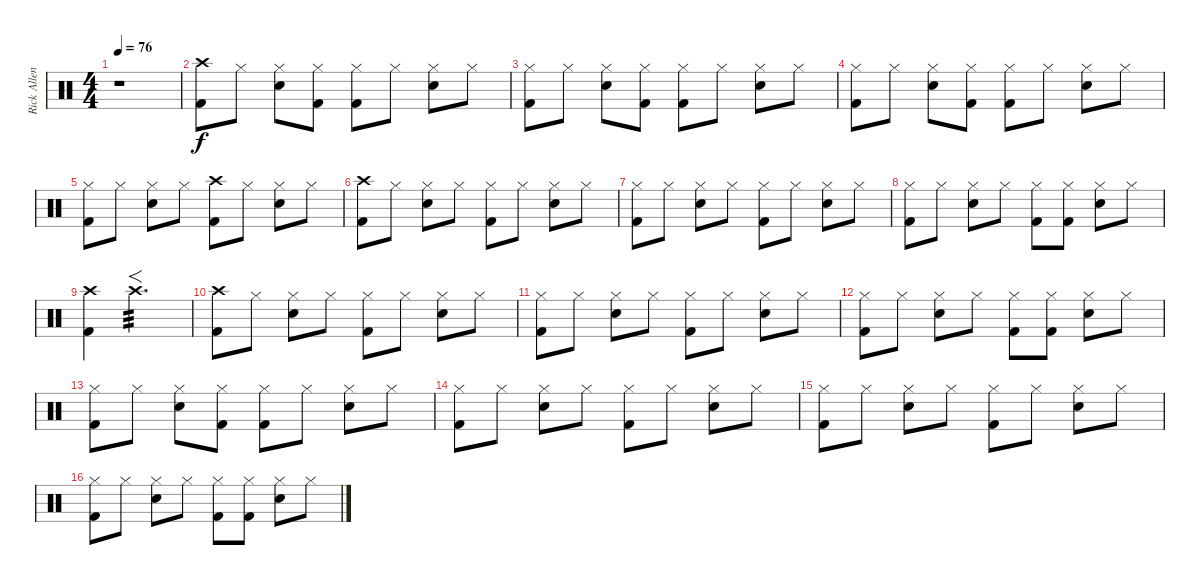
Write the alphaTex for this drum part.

\track ("Rick Allen" "Rick Allen") {instrument percussion}
\staff {score}
\articulation defaults
\ts (4 4)
\tempo 76
\clef neutral
\ks c
r.1{dy f} |
("Crash high (hit)" "Kick (hit) 2").8 "Hi-Hat (closed)".8 ("Hi-Hat (closed)" "Snare (hit) 2").8 ("Hi-Hat (closed)" "Kick (hit) 2").8 ("Hi-Hat (closed)" "Kick (hit) 2").8 "Hi-Hat (closed)".8 ("Hi-Hat (closed)" "Snare (hit) 2").8 "Hi-Hat (closed)".8 |
("Hi-Hat (closed)" "Kick (hit) 2").8 "Hi-Hat (closed)".8 ("Hi-Hat (closed)" "Snare (hit) 2").8 ("Hi-Hat (closed)" "Kick (hit) 2").8 ("Hi-Hat (closed)" "Kick (hit) 2").8 "Hi-Hat (closed)".8 ("Hi-Hat (closed)" "Snare (hit) 2").8 "Hi-Hat (closed)".8 |
("Hi-Hat (closed)" "Kick (hit) 2").8 "Hi-Hat (closed)".8 ("Hi-Hat (closed)" "Snare (hit) 2").8 ("Hi-Hat (closed)" "Kick (hit) 2").8 ("Hi-Hat (closed)" "Kick (hit) 2").8 "Hi-Hat (closed)".8 ("Hi-Hat (closed)" "Snare (hit) 2").8 "Hi-Hat (closed)".8 |
("Hi-Hat (closed)" "Kick (hit) 2").8 "Hi-Hat (closed)".8 ("Hi-Hat (closed)" "Snare (hit) 2").8 "Hi-Hat (closed)".8 ("Crash high (hit)" "Kick (hit) 2").8 "Hi-Hat (closed)".8 ("Hi-Hat (closed)" "Snare (hit) 2").8 "Hi-Hat (closed)".8 |
("Crash high (hit)" "Kick (hit) 2").8 "Hi-Hat (closed)".8 ("Hi-Hat (closed)" "Snare (hit) 2").8 "Hi-Hat (closed)".8 ("Hi-Hat (closed)" "Kick (hit) 2").8 "Hi-Hat (closed)".8 ("Hi-Hat (closed)" "Snare (hit) 2").8 "Hi-Hat (closed)".8 |
("Hi-Hat (closed)" "Kick (hit) 2").8 "Hi-Hat (closed)".8 ("Hi-Hat (closed)" "Snare (hit) 2").8 "Hi-Hat (closed)".8 ("Hi-Hat (closed)" "Kick (hit) 2").8 "Hi-Hat (closed)".8 ("Hi-Hat (closed)" "Snare (hit) 2").8 "Hi-Hat (closed)".8 |
("Hi-Hat (closed)" "Kick (hit) 2").8 "Hi-Hat (closed)".8 ("Hi-Hat (closed)" "Snare (hit) 2").8 "Hi-Hat (closed)".8 ("Hi-Hat (closed)" "Kick (hit) 2").8 ("Hi-Hat (closed)" "Kick (hit) 2").8 ("Hi-Hat (closed)" "Snare (hit) 2").8 "Hi-Hat (closed)".8 |
("Crash high (hit)" "Kick (hit) 2").4 "Crash high (hit)".2{f d tp 3} |
("Crash high (hit)" "Kick (hit) 2").8 "Hi-Hat (closed)".8 ("Hi-Hat (closed)" "Snare (hit) 2").8 "Hi-Hat (closed)".8 ("Hi-Hat (closed)" "Kick (hit) 2").8 "Hi-Hat (closed)".8 ("Hi-Hat (closed)" "Snare (hit) 2").8 "Hi-Hat (closed)".8 |
("Hi-Hat (closed)" "Kick (hit) 2").8 "Hi-Hat (closed)".8 ("Hi-Hat (closed)" "Snare (hit) 2").8 "Hi-Hat (closed)".8 ("Hi-Hat (closed)" "Kick (hit) 2").8 "Hi-Hat (closed)".8 ("Hi-Hat (closed)" "Snare (hit) 2").8 "Hi-Hat (closed)".8 |
("Hi-Hat (closed)" "Kick (hit) 2").8 "Hi-Hat (closed)".8 ("Hi-Hat (closed)" "Snare (hit) 2").8 "Hi-Hat (closed)".8 ("Hi-Hat (closed)" "Kick (hit) 2").8 ("Hi-Hat (closed)" "Kick (hit) 2").8 ("Hi-Hat (closed)" "Snare (hit) 2").8 "Hi-Hat (closed)".8 |
("Hi-Hat (closed)" "Kick (hit) 2").8 "Hi-Hat (closed)".8 ("Hi-Hat (closed)" "Snare (hit) 2").8 ("Hi-Hat (closed)" "Kick (hit) 2").8 ("Hi-Hat (closed)" "Kick (hit) 2").8 "Hi-Hat (closed)".8 ("Hi-Hat (closed)" "Snare (hit) 2").8 "Hi-Hat (closed)".8 |
("Hi-Hat (closed)" "Kick (hit) 2").8 "Hi-Hat (closed)".8 ("Hi-Hat (closed)" "Snare (hit) 2").8 "Hi-Hat (closed)".8 ("Hi-Hat (closed)" "Kick (hit) 2").8 "Hi-Hat (closed)".8 ("Hi-Hat (closed)" "Snare (hit) 2").8 "Hi-Hat (closed)".8 |
("Hi-Hat (closed)" "Kick (hit) 2").8 "Hi-Hat (closed)".8 ("Hi-Hat (closed)" "Snare (hit) 2").8 "Hi-Hat (closed)".8 ("Hi-Hat (closed)" "Kick (hit) 2").8 "Hi-Hat (closed)".8 ("Hi-Hat (closed)" "Snare (hit) 2").8 "Hi-Hat (closed)".8 |
("Hi-Hat (closed)" "Kick (hit) 2").8 "Hi-Hat (closed)".8 ("Hi-Hat (closed)" "Snare (hit) 2").8 "Hi-Hat (closed)".8 ("Hi-Hat (closed)" "Kick (hit) 2").8 ("Hi-Hat (closed)" "Kick (hit) 2").8 ("Hi-Hat (closed)" "Snare (hit) 2").8 "Hi-Hat (closed)".8
